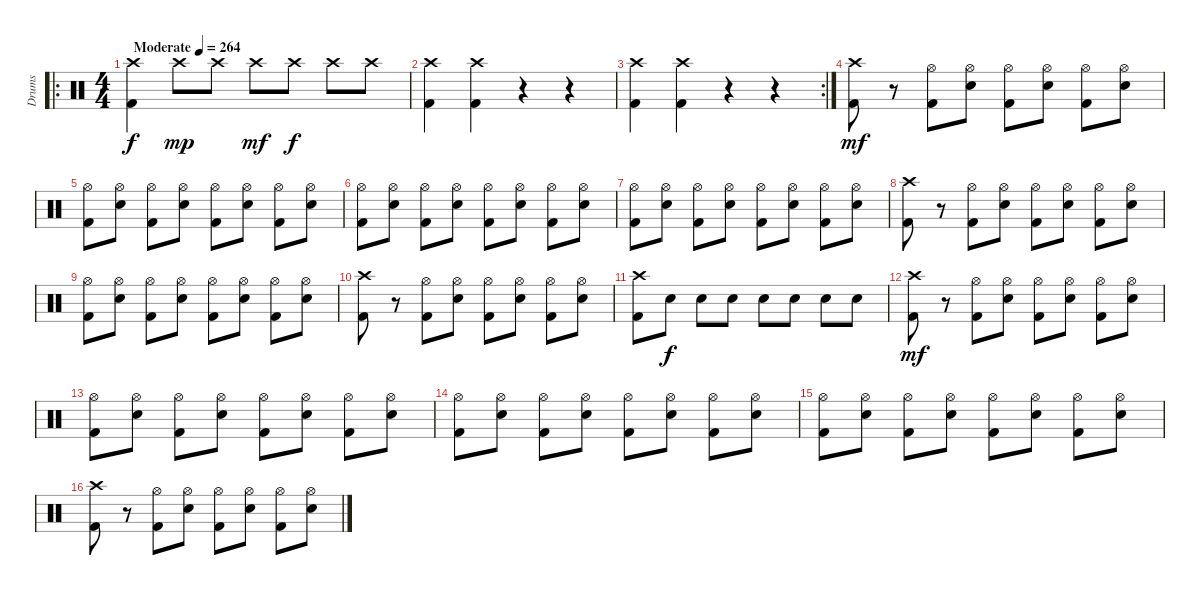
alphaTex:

\track ("Drums" "Drums") {instrument percussion}
\staff {score}
\articulation defaults
\ro
\ts (4 4)
\tempo (264 "Moderate")
\clef neutral
\ks c
("Crash high (hit)" "Kick (hit) 2").4{dy f} "Crash high (hit)".8{dy mp} "Crash high (hit)".8 "Crash high (hit)".8{dy mf} "Crash high (hit)".8{dy f} "Crash high (hit)".8 "Crash high (hit)".8 |
("Crash high (hit)" "Kick (hit) 2").4 ("Crash high (hit)" "Kick (hit) 2").4 r.4 r.4 |
\rc 2
("Crash high (hit)" "Kick (hit) 2").4 ("Crash high (hit)" "Kick (hit) 2").4 r.4 r.4 |
("Crash high (hit)" "Kick (hit) 2").8{dy mf} r.8 ("Hi-Hat (open)" "Kick (hit) 2").8 ("Hi-Hat (open)" "Snare (hit) 2").8 ("Hi-Hat (open)" "Kick (hit) 2").8 ("Hi-Hat (open)" "Snare (hit) 2").8 ("Hi-Hat (open)" "Kick (hit) 2").8 ("Hi-Hat (open)" "Snare (hit) 2").8 |
("Hi-Hat (open)" "Kick (hit) 2").8 ("Hi-Hat (open)" "Snare (hit) 2").8 ("Hi-Hat (open)" "Kick (hit) 2").8 ("Hi-Hat (open)" "Snare (hit) 2").8 ("Hi-Hat (open)" "Kick (hit) 2").8 ("Hi-Hat (open)" "Snare (hit) 2").8 ("Hi-Hat (open)" "Kick (hit) 2").8 ("Hi-Hat (open)" "Snare (hit) 2").8 |
("Hi-Hat (open)" "Kick (hit) 2").8 ("Hi-Hat (open)" "Snare (hit) 2").8 ("Hi-Hat (open)" "Kick (hit) 2").8 ("Hi-Hat (open)" "Snare (hit) 2").8 ("Hi-Hat (open)" "Kick (hit) 2").8 ("Hi-Hat (open)" "Snare (hit) 2").8 ("Hi-Hat (open)" "Kick (hit) 2").8 ("Hi-Hat (open)" "Snare (hit) 2").8 |
("Hi-Hat (open)" "Kick (hit) 2").8 ("Hi-Hat (open)" "Snare (hit) 2").8 ("Hi-Hat (open)" "Kick (hit) 2").8 ("Hi-Hat (open)" "Snare (hit) 2").8 ("Hi-Hat (open)" "Kick (hit) 2").8 ("Hi-Hat (open)" "Snare (hit) 2").8 ("Hi-Hat (open)" "Kick (hit) 2").8 ("Hi-Hat (open)" "Snare (hit) 2").8 |
("Crash high (hit)" "Kick (hit) 2").8 r.8 ("Hi-Hat (open)" "Kick (hit) 2").8 ("Hi-Hat (open)" "Snare (hit) 2").8 ("Hi-Hat (open)" "Kick (hit) 2").8 ("Hi-Hat (open)" "Snare (hit) 2").8 ("Hi-Hat (open)" "Kick (hit) 2").8 ("Hi-Hat (open)" "Snare (hit) 2").8 |
("Hi-Hat (open)" "Kick (hit) 2").8 ("Hi-Hat (open)" "Snare (hit) 2").8 ("Hi-Hat (open)" "Kick (hit) 2").8 ("Hi-Hat (open)" "Snare (hit) 2").8 ("Hi-Hat (open)" "Kick (hit) 2").8 ("Hi-Hat (open)" "Snare (hit) 2").8 ("Hi-Hat (open)" "Kick (hit) 2").8 ("Hi-Hat (open)" "Snare (hit) 2").8 |
("Crash high (hit)" "Kick (hit) 2").8 r.8 ("Hi-Hat (open)" "Kick (hit) 2").8 ("Hi-Hat (open)" "Snare (hit) 2").8 ("Hi-Hat (open)" "Kick (hit) 2").8 ("Hi-Hat (open)" "Snare (hit) 2").8 ("Hi-Hat (open)" "Kick (hit) 2").8 ("Hi-Hat (open)" "Snare (hit) 2").8 |
("Crash high (hit)" "Kick (hit) 2").8 "Snare (hit) 2".8{dy f} "Snare (hit) 2".8 "Snare (hit) 2".8 "Snare (hit) 2".8 "Snare (hit) 2".8 "Snare (hit) 2".8 "Snare (hit) 2".8 |
("Crash high (hit)" "Kick (hit) 2").8{dy mf} r.8 ("Hi-Hat (open)" "Kick (hit) 2").8 ("Hi-Hat (open)" "Snare (hit) 2").8 ("Hi-Hat (open)" "Kick (hit) 2").8 ("Hi-Hat (open)" "Snare (hit) 2").8 ("Hi-Hat (open)" "Kick (hit) 2").8 ("Hi-Hat (open)" "Snare (hit) 2").8 |
("Hi-Hat (open)" "Kick (hit) 2").8 ("Hi-Hat (open)" "Snare (hit) 2").8 ("Hi-Hat (open)" "Kick (hit) 2").8 ("Hi-Hat (open)" "Snare (hit) 2").8 ("Hi-Hat (open)" "Kick (hit) 2").8 ("Hi-Hat (open)" "Snare (hit) 2").8 ("Hi-Hat (open)" "Kick (hit) 2").8 ("Hi-Hat (open)" "Snare (hit) 2").8 |
("Hi-Hat (open)" "Kick (hit) 2").8 ("Hi-Hat (open)" "Snare (hit) 2").8 ("Hi-Hat (open)" "Kick (hit) 2").8 ("Hi-Hat (open)" "Snare (hit) 2").8 ("Hi-Hat (open)" "Kick (hit) 2").8 ("Hi-Hat (open)" "Snare (hit) 2").8 ("Hi-Hat (open)" "Kick (hit) 2").8 ("Hi-Hat (open)" "Snare (hit) 2").8 |
("Hi-Hat (open)" "Kick (hit) 2").8 ("Hi-Hat (open)" "Snare (hit) 2").8 ("Hi-Hat (open)" "Kick (hit) 2").8 ("Hi-Hat (open)" "Snare (hit) 2").8 ("Hi-Hat (open)" "Kick (hit) 2").8 ("Hi-Hat (open)" "Snare (hit) 2").8 ("Hi-Hat (open)" "Kick (hit) 2").8 ("Hi-Hat (open)" "Snare (hit) 2").8 |
("Crash high (hit)" "Kick (hit) 2").8 r.8 ("Hi-Hat (open)" "Kick (hit) 2").8 ("Hi-Hat (open)" "Snare (hit) 2").8 ("Hi-Hat (open)" "Kick (hit) 2").8 ("Hi-Hat (open)" "Snare (hit) 2").8 ("Hi-Hat (open)" "Kick (hit) 2").8 ("Hi-Hat (open)" "Snare (hit) 2").8
